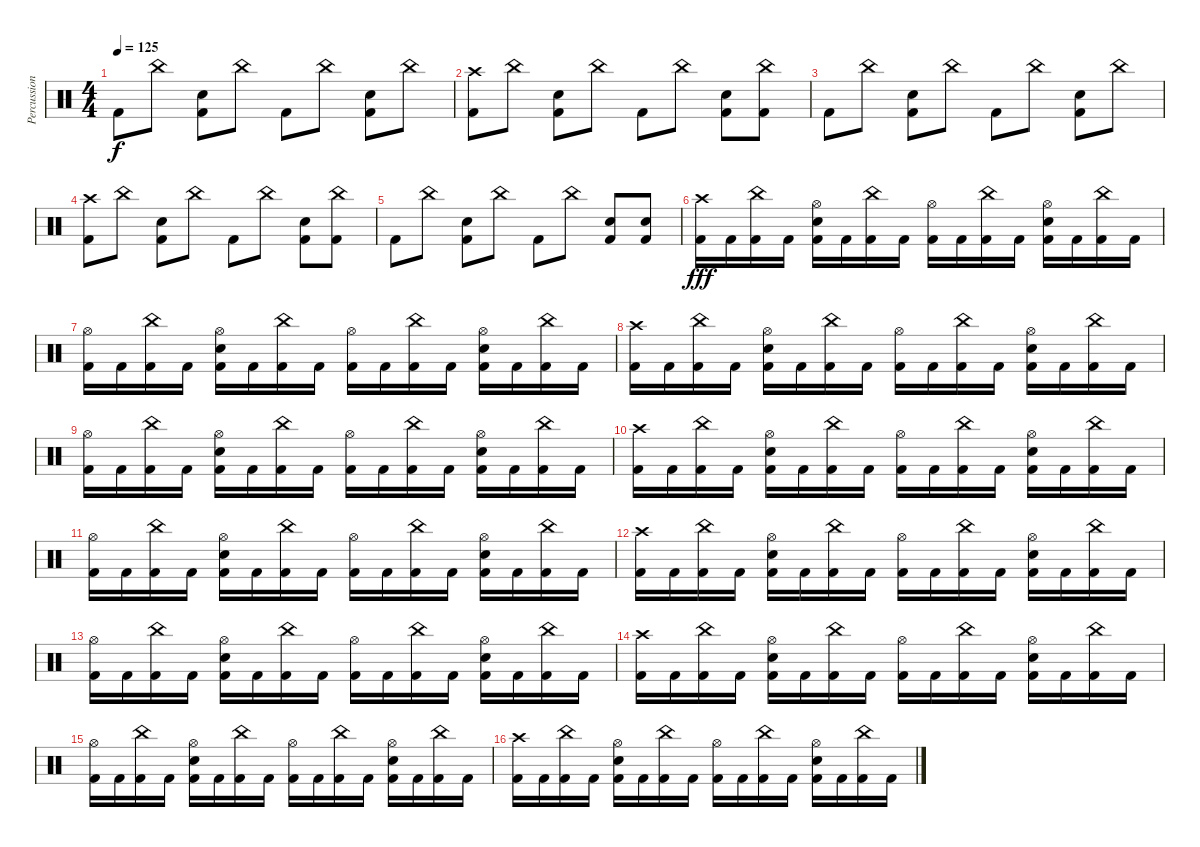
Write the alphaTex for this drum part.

\track ("Percussions" "Percussion") {instrument percussion}
\staff {score}
\articulation defaults
\ts (4 4)
\tempo 125
\clef neutral
\ks c "Kick (hit) 2".8{dy f} "China (hit)".8
("Electric Snare (hit)" "Kick (hit) 2").8 "China (hit)".8 "Kick (hit) 2".8 "China (hit)".8 ("Electric Snare (hit)" "Kick (hit) 2").8 "China (hit)".8 |
("Crash high (hit)" "Kick (hit) 2").8 "China (hit)".8 ("Electric Snare (hit)" "Kick (hit) 2").8 "China (hit)".8 "Kick (hit) 2".8 "China (hit)".8 ("Electric Snare (hit)" "Kick (hit) 2").8 ("China (hit)" "Kick (hit) 2").8 |
"Kick (hit) 2".8 "China (hit)".8 ("Electric Snare (hit)" "Kick (hit) 2").8 "China (hit)".8 "Kick (hit) 2".8 "China (hit)".8 ("Electric Snare (hit)" "Kick (hit) 2").8 "China (hit)".8 |
("Crash high (hit)" "Kick (hit) 2").8 "China (hit)".8 ("Electric Snare (hit)" "Kick (hit) 2").8 "China (hit)".8 "Kick (hit) 2".8 "China (hit)".8 ("Electric Snare (hit)" "Kick (hit) 2").8 ("China (hit)" "Kick (hit) 2").8 |
"Kick (hit) 2".8 "China (hit)".8 ("Electric Snare (hit)" "Kick (hit) 2").8 "China (hit)".8 "Kick (hit) 2".8 "China (hit)".8 ("Electric Snare (hit)" "Kick (hit) 2").8 ("Electric Snare (hit)" "Kick (hit) 2").8 |
("Crash high (hit)" "Kick (hit) 2").16{dy fff} "Kick (hit) 2".16 ("China (hit)" "Kick (hit) 2").16 "Kick (hit) 2".16 ("Hi-Hat (open)" "Electric Snare (hit)" "Kick (hit) 2").16 "Kick (hit) 2".16 ("China (hit)" "Kick (hit) 2").16 "Kick (hit) 2".16 ("Hi-Hat (open)" "Kick (hit) 2").16 "Kick (hit) 2".16 ("China (hit)" "Kick (hit) 2").16 "Kick (hit) 2".16 ("Hi-Hat (open)" "Electric Snare (hit)" "Kick (hit) 2").16 "Kick (hit) 2".16 ("China (hit)" "Kick (hit) 2").16 "Kick (hit) 2".16 |
("Hi-Hat (open)" "Kick (hit) 2").16 "Kick (hit) 2".16 ("China (hit)" "Kick (hit) 2").16 "Kick (hit) 2".16 ("Hi-Hat (open)" "Electric Snare (hit)" "Kick (hit) 2").16 "Kick (hit) 2".16 ("China (hit)" "Kick (hit) 2").16 "Kick (hit) 2".16 ("Hi-Hat (open)" "Kick (hit) 2").16 "Kick (hit) 2".16 ("China (hit)" "Kick (hit) 2").16 "Kick (hit) 2".16 ("Hi-Hat (open)" "Electric Snare (hit)" "Kick (hit) 2").16 "Kick (hit) 2".16 ("China (hit)" "Kick (hit) 2").16 "Kick (hit) 2".16 |
("Crash high (hit)" "Kick (hit) 2").16 "Kick (hit) 2".16 ("China (hit)" "Kick (hit) 2").16 "Kick (hit) 2".16 ("Hi-Hat (open)" "Electric Snare (hit)" "Kick (hit) 2").16 "Kick (hit) 2".16 ("China (hit)" "Kick (hit) 2").16 "Kick (hit) 2".16 ("Hi-Hat (open)" "Kick (hit) 2").16 "Kick (hit) 2".16 ("China (hit)" "Kick (hit) 2").16 "Kick (hit) 2".16 ("Hi-Hat (open)" "Electric Snare (hit)" "Kick (hit) 2").16 "Kick (hit) 2".16 ("China (hit)" "Kick (hit) 2").16 "Kick (hit) 2".16 |
("Hi-Hat (open)" "Kick (hit) 2").16 "Kick (hit) 2".16 ("China (hit)" "Kick (hit) 2").16 "Kick (hit) 2".16 ("Hi-Hat (open)" "Electric Snare (hit)" "Kick (hit) 2").16 "Kick (hit) 2".16 ("China (hit)" "Kick (hit) 2").16 "Kick (hit) 2".16 ("Hi-Hat (open)" "Kick (hit) 2").16 "Kick (hit) 2".16 ("China (hit)" "Kick (hit) 2").16 "Kick (hit) 2".16 ("Hi-Hat (open)" "Electric Snare (hit)" "Kick (hit) 2").16 "Kick (hit) 2".16 ("China (hit)" "Kick (hit) 2").16 "Kick (hit) 2".16 |
("Crash high (hit)" "Kick (hit) 2").16 "Kick (hit) 2".16 ("China (hit)" "Kick (hit) 2").16 "Kick (hit) 2".16 ("Hi-Hat (open)" "Electric Snare (hit)" "Kick (hit) 2").16 "Kick (hit) 2".16 ("China (hit)" "Kick (hit) 2").16 "Kick (hit) 2".16 ("Hi-Hat (open)" "Kick (hit) 2").16 "Kick (hit) 2".16 ("China (hit)" "Kick (hit) 2").16 "Kick (hit) 2".16 ("Hi-Hat (open)" "Electric Snare (hit)" "Kick (hit) 2").16 "Kick (hit) 2".16 ("China (hit)" "Kick (hit) 2").16 "Kick (hit) 2".16 |
("Hi-Hat (open)" "Kick (hit) 2").16 "Kick (hit) 2".16 ("China (hit)" "Kick (hit) 2").16 "Kick (hit) 2".16 ("Hi-Hat (open)" "Electric Snare (hit)" "Kick (hit) 2").16 "Kick (hit) 2".16 ("China (hit)" "Kick (hit) 2").16 "Kick (hit) 2".16 ("Hi-Hat (open)" "Kick (hit) 2").16 "Kick (hit) 2".16 ("China (hit)" "Kick (hit) 2").16 "Kick (hit) 2".16 ("Hi-Hat (open)" "Electric Snare (hit)" "Kick (hit) 2").16 "Kick (hit) 2".16 ("China (hit)" "Kick (hit) 2").16 "Kick (hit) 2".16 |
("Crash high (hit)" "Kick (hit) 2").16 "Kick (hit) 2".16 ("China (hit)" "Kick (hit) 2").16 "Kick (hit) 2".16 ("Hi-Hat (open)" "Electric Snare (hit)" "Kick (hit) 2").16 "Kick (hit) 2".16 ("China (hit)" "Kick (hit) 2").16 "Kick (hit) 2".16 ("Hi-Hat (open)" "Kick (hit) 2").16 "Kick (hit) 2".16 ("China (hit)" "Kick (hit) 2").16 "Kick (hit) 2".16 ("Hi-Hat (open)" "Electric Snare (hit)" "Kick (hit) 2").16 "Kick (hit) 2".16 ("China (hit)" "Kick (hit) 2").16 "Kick (hit) 2".16 |
("Hi-Hat (open)" "Kick (hit) 2").16 "Kick (hit) 2".16 ("China (hit)" "Kick (hit) 2").16 "Kick (hit) 2".16 ("Hi-Hat (open)" "Electric Snare (hit)" "Kick (hit) 2").16 "Kick (hit) 2".16 ("China (hit)" "Kick (hit) 2").16 "Kick (hit) 2".16 ("Hi-Hat (open)" "Kick (hit) 2").16 "Kick (hit) 2".16 ("China (hit)" "Kick (hit) 2").16 "Kick (hit) 2".16 ("Hi-Hat (open)" "Electric Snare (hit)" "Kick (hit) 2").16 "Kick (hit) 2".16 ("China (hit)" "Kick (hit) 2").16 "Kick (hit) 2".16 |
("Crash high (hit)" "Kick (hit) 2").16 "Kick (hit) 2".16 ("China (hit)" "Kick (hit) 2").16 "Kick (hit) 2".16 ("Hi-Hat (open)" "Electric Snare (hit)" "Kick (hit) 2").16 "Kick (hit) 2".16 ("China (hit)" "Kick (hit) 2").16 "Kick (hit) 2".16 ("Hi-Hat (open)" "Kick (hit) 2").16 "Kick (hit) 2".16 ("China (hit)" "Kick (hit) 2").16 "Kick (hit) 2".16 ("Hi-Hat (open)" "Electric Snare (hit)" "Kick (hit) 2").16 "Kick (hit) 2".16 ("China (hit)" "Kick (hit) 2").16 "Kick (hit) 2".16 |
("Hi-Hat (open)" "Kick (hit) 2").16 "Kick (hit) 2".16 ("China (hit)" "Kick (hit) 2").16 "Kick (hit) 2".16 ("Hi-Hat (open)" "Electric Snare (hit)" "Kick (hit) 2").16 "Kick (hit) 2".16 ("China (hit)" "Kick (hit) 2").16 "Kick (hit) 2".16 ("Hi-Hat (open)" "Kick (hit) 2").16 "Kick (hit) 2".16 ("China (hit)" "Kick (hit) 2").16 "Kick (hit) 2".16 ("Hi-Hat (open)" "Electric Snare (hit)" "Kick (hit) 2").16 "Kick (hit) 2".16 ("China (hit)" "Kick (hit) 2").16 "Kick (hit) 2".16 |
("Crash high (hit)" "Kick (hit) 2").16 "Kick (hit) 2".16 ("China (hit)" "Kick (hit) 2").16 "Kick (hit) 2".16 ("Hi-Hat (open)" "Electric Snare (hit)" "Kick (hit) 2").16 "Kick (hit) 2".16 ("China (hit)" "Kick (hit) 2").16 "Kick (hit) 2".16 ("Hi-Hat (open)" "Kick (hit) 2").16 "Kick (hit) 2".16 ("China (hit)" "Kick (hit) 2").16 "Kick (hit) 2".16 ("Hi-Hat (open)" "Electric Snare (hit)" "Kick (hit) 2").16 "Kick (hit) 2".16 ("China (hit)" "Kick (hit) 2").16 "Kick (hit) 2".16
